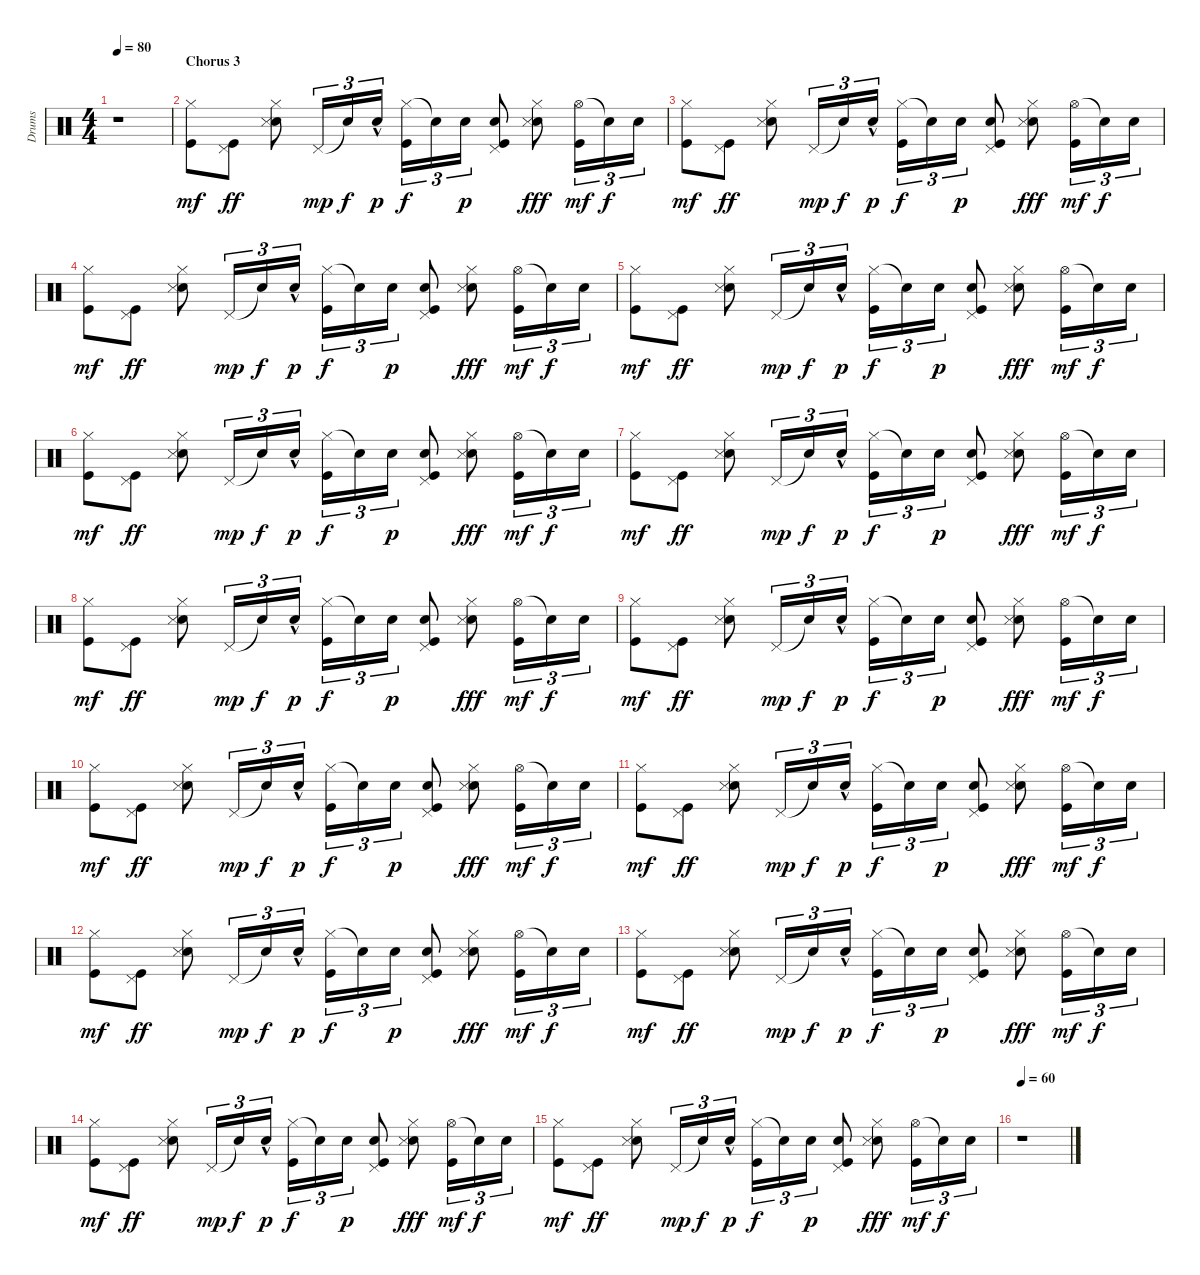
\track ("Drums" "Drums") {instrument percussion}
\staff {score}
\articulation defaults
\ts (4 4)
\tempo 80
\clef neutral
\ks c
r.1{dy f} |
\section ("" "Chorus 3")
("Hi-Hat (closed)" "Kick (hit)").8{dy mf} ("Pedal Hi-Hat (hit)" "Kick (hit)").8{dy ff} ("Electric Snare (hit)" "Hi-Hat (closed)" "Snare (side stick) 3").8 "Pedal Hi-Hat (hit)".16{tu (3 2) dy mp} "Snare (hit)"{t}.16{tu (3 2) dy f} "Electric Snare (hit)"{hac}.16{tu (3 2) dy p} ("Hi-Hat (closed)" "Kick (hit)").16{tu (3 2) dy f} "Snare (hit)"{t}.16{tu (3 2)} "Electric Snare (hit)".16{tu (3 2) dy p} ("Electric Snare (hit)" "Pedal Hi-Hat (hit)" "Kick (hit)").8 ("Electric Snare (hit)" "Hi-Hat (closed)" "Snare (side stick) 3").8{dy fff} ("Hi-Hat (open)" "Kick (hit)").16{tu (3 2) dy mf} "Snare (hit)"{t}.16{tu (3 2) dy f} "Electric Snare (hit)".16{tu (3 2)} |
("Hi-Hat (closed)" "Kick (hit)").8{dy mf} ("Pedal Hi-Hat (hit)" "Kick (hit)").8{dy ff} ("Electric Snare (hit)" "Hi-Hat (closed)" "Snare (side stick) 3").8 "Pedal Hi-Hat (hit)".16{tu (3 2) dy mp} "Snare (hit)"{t}.16{tu (3 2) dy f} "Electric Snare (hit)"{hac}.16{tu (3 2) dy p} ("Hi-Hat (closed)" "Kick (hit)").16{tu (3 2) dy f} "Snare (hit)"{t}.16{tu (3 2)} "Electric Snare (hit)".16{tu (3 2) dy p} ("Electric Snare (hit)" "Pedal Hi-Hat (hit)" "Kick (hit)").8 ("Electric Snare (hit)" "Hi-Hat (closed)" "Snare (side stick) 3").8{dy fff} ("Hi-Hat (open)" "Kick (hit)").16{tu (3 2) dy mf} "Snare (hit)"{t}.16{tu (3 2) dy f} "Electric Snare (hit)".16{tu (3 2)} |
("Hi-Hat (closed)" "Kick (hit)").8{dy mf} ("Pedal Hi-Hat (hit)" "Kick (hit)").8{dy ff} ("Electric Snare (hit)" "Hi-Hat (closed)" "Snare (side stick) 3").8 "Pedal Hi-Hat (hit)".16{tu (3 2) dy mp} "Snare (hit)"{t}.16{tu (3 2) dy f} "Electric Snare (hit)"{hac}.16{tu (3 2) dy p} ("Hi-Hat (closed)" "Kick (hit)").16{tu (3 2) dy f} "Snare (hit)"{t}.16{tu (3 2)} "Electric Snare (hit)".16{tu (3 2) dy p} ("Electric Snare (hit)" "Pedal Hi-Hat (hit)" "Kick (hit)").8 ("Electric Snare (hit)" "Hi-Hat (closed)" "Snare (side stick) 3").8{dy fff} ("Hi-Hat (open)" "Kick (hit)").16{tu (3 2) dy mf} "Snare (hit)"{t}.16{tu (3 2) dy f} "Electric Snare (hit)".16{tu (3 2)} |
("Hi-Hat (closed)" "Kick (hit)").8{dy mf} ("Pedal Hi-Hat (hit)" "Kick (hit)").8{dy ff} ("Electric Snare (hit)" "Hi-Hat (closed)" "Snare (side stick) 3").8 "Pedal Hi-Hat (hit)".16{tu (3 2) dy mp} "Snare (hit)"{t}.16{tu (3 2) dy f} "Electric Snare (hit)"{hac}.16{tu (3 2) dy p} ("Hi-Hat (closed)" "Kick (hit)").16{tu (3 2) dy f} "Snare (hit)"{t}.16{tu (3 2)} "Electric Snare (hit)".16{tu (3 2) dy p} ("Electric Snare (hit)" "Pedal Hi-Hat (hit)" "Kick (hit)").8 ("Electric Snare (hit)" "Hi-Hat (closed)" "Snare (side stick) 3").8{dy fff} ("Hi-Hat (open)" "Kick (hit)").16{tu (3 2) dy mf} "Snare (hit)"{t}.16{tu (3 2) dy f} "Electric Snare (hit)".16{tu (3 2)} |
("Hi-Hat (closed)" "Kick (hit)").8{dy mf} ("Pedal Hi-Hat (hit)" "Kick (hit)").8{dy ff} ("Electric Snare (hit)" "Hi-Hat (closed)" "Snare (side stick) 3").8 "Pedal Hi-Hat (hit)".16{tu (3 2) dy mp} "Snare (hit)"{t}.16{tu (3 2) dy f} "Electric Snare (hit)"{hac}.16{tu (3 2) dy p} ("Hi-Hat (closed)" "Kick (hit)").16{tu (3 2) dy f} "Snare (hit)"{t}.16{tu (3 2)} "Electric Snare (hit)".16{tu (3 2) dy p} ("Electric Snare (hit)" "Pedal Hi-Hat (hit)" "Kick (hit)").8 ("Electric Snare (hit)" "Hi-Hat (closed)" "Snare (side stick) 3").8{dy fff} ("Hi-Hat (open)" "Kick (hit)").16{tu (3 2) dy mf} "Snare (hit)"{t}.16{tu (3 2) dy f} "Electric Snare (hit)".16{tu (3 2)} |
("Hi-Hat (closed)" "Kick (hit)").8{dy mf} ("Pedal Hi-Hat (hit)" "Kick (hit)").8{dy ff} ("Electric Snare (hit)" "Hi-Hat (closed)" "Snare (side stick) 3").8 "Pedal Hi-Hat (hit)".16{tu (3 2) dy mp} "Snare (hit)"{t}.16{tu (3 2) dy f} "Electric Snare (hit)"{hac}.16{tu (3 2) dy p} ("Hi-Hat (closed)" "Kick (hit)").16{tu (3 2) dy f} "Snare (hit)"{t}.16{tu (3 2)} "Electric Snare (hit)".16{tu (3 2) dy p} ("Electric Snare (hit)" "Pedal Hi-Hat (hit)" "Kick (hit)").8 ("Electric Snare (hit)" "Hi-Hat (closed)" "Snare (side stick) 3").8{dy fff} ("Hi-Hat (open)" "Kick (hit)").16{tu (3 2) dy mf} "Snare (hit)"{t}.16{tu (3 2) dy f} "Electric Snare (hit)".16{tu (3 2)} |
("Hi-Hat (closed)" "Kick (hit)").8{dy mf} ("Pedal Hi-Hat (hit)" "Kick (hit)").8{dy ff} ("Electric Snare (hit)" "Hi-Hat (closed)" "Snare (side stick) 3").8 "Pedal Hi-Hat (hit)".16{tu (3 2) dy mp} "Snare (hit)"{t}.16{tu (3 2) dy f} "Electric Snare (hit)"{hac}.16{tu (3 2) dy p} ("Hi-Hat (closed)" "Kick (hit)").16{tu (3 2) dy f} "Snare (hit)"{t}.16{tu (3 2)} "Electric Snare (hit)".16{tu (3 2) dy p} ("Electric Snare (hit)" "Pedal Hi-Hat (hit)" "Kick (hit)").8 ("Electric Snare (hit)" "Hi-Hat (closed)" "Snare (side stick) 3").8{dy fff} ("Hi-Hat (open)" "Kick (hit)").16{tu (3 2) dy mf} "Snare (hit)"{t}.16{tu (3 2) dy f} "Electric Snare (hit)".16{tu (3 2)} |
("Hi-Hat (closed)" "Kick (hit)").8{dy mf} ("Pedal Hi-Hat (hit)" "Kick (hit)").8{dy ff} ("Electric Snare (hit)" "Hi-Hat (closed)" "Snare (side stick) 3").8 "Pedal Hi-Hat (hit)".16{tu (3 2) dy mp} "Snare (hit)"{t}.16{tu (3 2) dy f} "Electric Snare (hit)"{hac}.16{tu (3 2) dy p} ("Hi-Hat (closed)" "Kick (hit)").16{tu (3 2) dy f} "Snare (hit)"{t}.16{tu (3 2)} "Electric Snare (hit)".16{tu (3 2) dy p} ("Electric Snare (hit)" "Pedal Hi-Hat (hit)" "Kick (hit)").8 ("Electric Snare (hit)" "Hi-Hat (closed)" "Snare (side stick) 3").8{dy fff} ("Hi-Hat (open)" "Kick (hit)").16{tu (3 2) dy mf} "Snare (hit)"{t}.16{tu (3 2) dy f} "Electric Snare (hit)".16{tu (3 2)} |
("Hi-Hat (closed)" "Kick (hit)").8{dy mf} ("Pedal Hi-Hat (hit)" "Kick (hit)").8{dy ff} ("Electric Snare (hit)" "Hi-Hat (closed)" "Snare (side stick) 3").8 "Pedal Hi-Hat (hit)".16{tu (3 2) dy mp} "Snare (hit)"{t}.16{tu (3 2) dy f} "Electric Snare (hit)"{hac}.16{tu (3 2) dy p} ("Hi-Hat (closed)" "Kick (hit)").16{tu (3 2) dy f} "Snare (hit)"{t}.16{tu (3 2)} "Electric Snare (hit)".16{tu (3 2) dy p} ("Electric Snare (hit)" "Pedal Hi-Hat (hit)" "Kick (hit)").8 ("Electric Snare (hit)" "Hi-Hat (closed)" "Snare (side stick) 3").8{dy fff} ("Hi-Hat (open)" "Kick (hit)").16{tu (3 2) dy mf} "Snare (hit)"{t}.16{tu (3 2) dy f} "Electric Snare (hit)".16{tu (3 2)} |
("Hi-Hat (closed)" "Kick (hit)").8{dy mf} ("Pedal Hi-Hat (hit)" "Kick (hit)").8{dy ff} ("Electric Snare (hit)" "Hi-Hat (closed)" "Snare (side stick) 3").8 "Pedal Hi-Hat (hit)".16{tu (3 2) dy mp} "Snare (hit)"{t}.16{tu (3 2) dy f} "Electric Snare (hit)"{hac}.16{tu (3 2) dy p} ("Hi-Hat (closed)" "Kick (hit)").16{tu (3 2) dy f} "Snare (hit)"{t}.16{tu (3 2)} "Electric Snare (hit)".16{tu (3 2) dy p} ("Electric Snare (hit)" "Pedal Hi-Hat (hit)" "Kick (hit)").8 ("Electric Snare (hit)" "Hi-Hat (closed)" "Snare (side stick) 3").8{dy fff} ("Hi-Hat (open)" "Kick (hit)").16{tu (3 2) dy mf} "Snare (hit)"{t}.16{tu (3 2) dy f} "Electric Snare (hit)".16{tu (3 2)} |
("Hi-Hat (closed)" "Kick (hit)").8{dy mf} ("Pedal Hi-Hat (hit)" "Kick (hit)").8{dy ff} ("Electric Snare (hit)" "Hi-Hat (closed)" "Snare (side stick) 3").8 "Pedal Hi-Hat (hit)".16{tu (3 2) dy mp} "Snare (hit)"{t}.16{tu (3 2) dy f} "Electric Snare (hit)"{hac}.16{tu (3 2) dy p} ("Hi-Hat (closed)" "Kick (hit)").16{tu (3 2) dy f} "Snare (hit)"{t}.16{tu (3 2)} "Electric Snare (hit)".16{tu (3 2) dy p} ("Electric Snare (hit)" "Pedal Hi-Hat (hit)" "Kick (hit)").8 ("Electric Snare (hit)" "Hi-Hat (closed)" "Snare (side stick) 3").8{dy fff} ("Hi-Hat (open)" "Kick (hit)").16{tu (3 2) dy mf} "Snare (hit)"{t}.16{tu (3 2) dy f} "Electric Snare (hit)".16{tu (3 2)} |
("Hi-Hat (closed)" "Kick (hit)").8{dy mf} ("Pedal Hi-Hat (hit)" "Kick (hit)").8{dy ff} ("Electric Snare (hit)" "Hi-Hat (closed)" "Snare (side stick) 3").8 "Pedal Hi-Hat (hit)".16{tu (3 2) dy mp} "Snare (hit)"{t}.16{tu (3 2) dy f} "Electric Snare (hit)"{hac}.16{tu (3 2) dy p} ("Hi-Hat (closed)" "Kick (hit)").16{tu (3 2) dy f} "Snare (hit)"{t}.16{tu (3 2)} "Electric Snare (hit)".16{tu (3 2) dy p} ("Electric Snare (hit)" "Pedal Hi-Hat (hit)" "Kick (hit)").8 ("Electric Snare (hit)" "Hi-Hat (closed)" "Snare (side stick) 3").8{dy fff} ("Hi-Hat (open)" "Kick (hit)").16{tu (3 2) dy mf} "Snare (hit)"{t}.16{tu (3 2) dy f} "Electric Snare (hit)".16{tu (3 2)} |
("Hi-Hat (closed)" "Kick (hit)").8{dy mf} ("Pedal Hi-Hat (hit)" "Kick (hit)").8{dy ff} ("Electric Snare (hit)" "Hi-Hat (closed)" "Snare (side stick) 3").8 "Pedal Hi-Hat (hit)".16{tu (3 2) dy mp} "Snare (hit)"{t}.16{tu (3 2) dy f} "Electric Snare (hit)"{hac}.16{tu (3 2) dy p} ("Hi-Hat (closed)" "Kick (hit)").16{tu (3 2) dy f} "Snare (hit)"{t}.16{tu (3 2)} "Electric Snare (hit)".16{tu (3 2) dy p} ("Electric Snare (hit)" "Pedal Hi-Hat (hit)" "Kick (hit)").8 ("Electric Snare (hit)" "Hi-Hat (closed)" "Snare (side stick) 3").8{dy fff} ("Hi-Hat (open)" "Kick (hit)").16{tu (3 2) dy mf} "Snare (hit)"{t}.16{tu (3 2) dy f} "Electric Snare (hit)".16{tu (3 2)} |
("Hi-Hat (closed)" "Kick (hit)").8{dy mf} ("Pedal Hi-Hat (hit)" "Kick (hit)").8{dy ff} ("Electric Snare (hit)" "Hi-Hat (closed)" "Snare (side stick) 3").8 "Pedal Hi-Hat (hit)".16{tu (3 2) dy mp} "Snare (hit)"{t}.16{tu (3 2) dy f} "Electric Snare (hit)"{hac}.16{tu (3 2) dy p} ("Hi-Hat (closed)" "Kick (hit)").16{tu (3 2) dy f} "Snare (hit)"{t}.16{tu (3 2)} "Electric Snare (hit)".16{tu (3 2) dy p} ("Electric Snare (hit)" "Pedal Hi-Hat (hit)" "Kick (hit)").8 ("Electric Snare (hit)" "Hi-Hat (closed)" "Snare (side stick) 3").8{dy fff} ("Hi-Hat (open)" "Kick (hit)").16{tu (3 2) dy mf} "Snare (hit)"{t}.16{tu (3 2) dy f} "Electric Snare (hit)".16{tu (3 2)} |
\tempo 60
r.1
